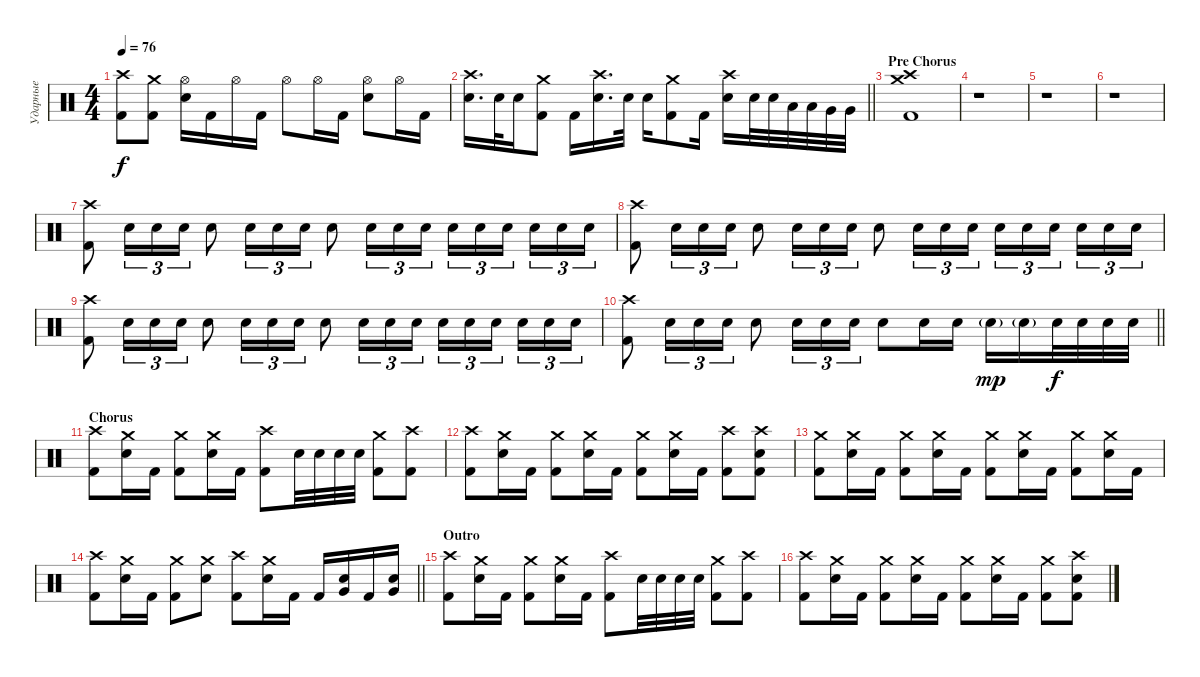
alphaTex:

\track ("Ударные" "Ударные") {instrument percussion}
\staff {score}
\articulation defaults
\ts (4 4)
\tempo 76
\clef neutral
\ks c
("Crash high (hit)" "Kick (hit) 2").8{dy f} ("Crash medium (hit)" "Kick (hit) 2").8 ("Hi-Hat (open)" "Electric Snare (hit)").16 "Kick (hit) 2".16 "Hi-Hat (open)".16 "Kick (hit) 2".16 "Hi-Hat (open)".8 "Hi-Hat (open)".16 "Kick (hit) 2".16 ("Hi-Hat (open)" "Electric Snare (hit)").8 "Hi-Hat (open)".16 "Kick (hit) 2".16 |
\barLineRight lightlight
("Crash high (hit)" "Electric Snare (hit)").16{d} "Electric Snare (hit)".32 "Electric Snare (hit)".16 ("Crash medium (hit)" "Kick (hit) 2").8 "Kick (hit) 2".16 ("Crash high (hit)" "Electric Snare (hit)").16{d} "Electric Snare (hit)".32 "Electric Snare (hit)".16 ("Crash medium (hit)" "Kick (hit) 2").8 "Kick (hit) 2".16 ("Crash high (hit)" "Electric Snare (hit)").16 "Electric Snare (hit)".32 "Electric Snare (hit)".32 "Low Tom (hit)".32 "Low Tom (hit)".32 "Very Low Tom (hit)".32 "Very Low Tom (hit)".32 |
\section ("" "Pre Chorus")
("Crash high (hit)" "Crash medium (hit)" "Kick (hit) 2").1 |
r.1 |
r.1 |
r.1 |
("Crash high (hit)" "Kick (hit) 2").8 "Electric Snare (hit)".16{tu (3 2)} "Electric Snare (hit)".16{tu (3 2)} "Electric Snare (hit)".16{tu (3 2)} "Electric Snare (hit)".8 "Electric Snare (hit)".16{tu (3 2)} "Electric Snare (hit)".16{tu (3 2)} "Electric Snare (hit)".16{tu (3 2)} "Electric Snare (hit)".8 "Electric Snare (hit)".16{tu (3 2)} "Electric Snare (hit)".16{tu (3 2)} "Electric Snare (hit)".16{tu (3 2)} "Electric Snare (hit)".16{tu (3 2)} "Electric Snare (hit)".16{tu (3 2)} "Electric Snare (hit)".16{tu (3 2) beam splitsecondary} "Electric Snare (hit)".16{tu (3 2)} "Electric Snare (hit)".16{tu (3 2)} "Electric Snare (hit)".16{tu (3 2)} |
("Crash high (hit)" "Kick (hit) 2").8 "Electric Snare (hit)".16{tu (3 2)} "Electric Snare (hit)".16{tu (3 2)} "Electric Snare (hit)".16{tu (3 2)} "Electric Snare (hit)".8 "Electric Snare (hit)".16{tu (3 2)} "Electric Snare (hit)".16{tu (3 2)} "Electric Snare (hit)".16{tu (3 2)} "Electric Snare (hit)".8 "Electric Snare (hit)".16{tu (3 2)} "Electric Snare (hit)".16{tu (3 2)} "Electric Snare (hit)".16{tu (3 2)} "Electric Snare (hit)".16{tu (3 2)} "Electric Snare (hit)".16{tu (3 2)} "Electric Snare (hit)".16{tu (3 2) beam splitsecondary} "Electric Snare (hit)".16{tu (3 2)} "Electric Snare (hit)".16{tu (3 2)} "Electric Snare (hit)".16{tu (3 2)} |
("Crash high (hit)" "Kick (hit) 2").8 "Electric Snare (hit)".16{tu (3 2)} "Electric Snare (hit)".16{tu (3 2)} "Electric Snare (hit)".16{tu (3 2)} "Electric Snare (hit)".8 "Electric Snare (hit)".16{tu (3 2)} "Electric Snare (hit)".16{tu (3 2)} "Electric Snare (hit)".16{tu (3 2)} "Electric Snare (hit)".8 "Electric Snare (hit)".16{tu (3 2)} "Electric Snare (hit)".16{tu (3 2)} "Electric Snare (hit)".16{tu (3 2)} "Electric Snare (hit)".16{tu (3 2)} "Electric Snare (hit)".16{tu (3 2)} "Electric Snare (hit)".16{tu (3 2) beam splitsecondary} "Electric Snare (hit)".16{tu (3 2)} "Electric Snare (hit)".16{tu (3 2)} "Electric Snare (hit)".16{tu (3 2)} |
\barLineRight lightlight
("Crash high (hit)" "Kick (hit) 2").8 "Electric Snare (hit)".16{tu (3 2)} "Electric Snare (hit)".16{tu (3 2)} "Electric Snare (hit)".16{tu (3 2)} "Electric Snare (hit)".8 "Electric Snare (hit)".16{tu (3 2)} "Electric Snare (hit)".16{tu (3 2)} "Electric Snare (hit)".16{tu (3 2)} "Electric Snare (hit)".8 "Electric Snare (hit)".16 "Electric Snare (hit)".16 "Electric Snare (hit)"{g}.16{dy mp} "Electric Snare (hit)"{g}.16 "Electric Snare (hit)".32{dy f} "Electric Snare (hit)".32 "Electric Snare (hit)".32 "Electric Snare (hit)".32 |
\section ("" "Сhorus")
("Crash high (hit)" "Kick (hit) 2").8 ("Crash medium (hit)" "Electric Snare (hit)").16 "Kick (hit) 2".16 ("Crash medium (hit)" "Kick (hit) 2").8 ("Crash medium (hit)" "Electric Snare (hit)").16 "Kick (hit) 2".16 ("Crash high (hit)" "Kick (hit) 2").8 "Electric Snare (hit)".32 "Electric Snare (hit)".32 "Electric Snare (hit)".32 "Electric Snare (hit)".32 ("Crash medium (hit)" "Kick (hit) 2").8 ("Crash high (hit)" "Kick (hit) 2").8 |
("Crash high (hit)" "Kick (hit) 2").8 ("Crash medium (hit)" "Electric Snare (hit)").16 "Kick (hit) 2".16 ("Crash medium (hit)" "Kick (hit) 2").8 ("Crash medium (hit)" "Electric Snare (hit)").16 "Kick (hit) 2".16 ("Crash medium (hit)" "Kick (hit) 2").8 ("Crash medium (hit)" "Electric Snare (hit)").16 "Kick (hit) 2".16 ("Crash high (hit)" "Kick (hit) 2").8 ("Crash high (hit)" "Electric Snare (hit)" "Kick (hit) 2").8 |
("Crash medium (hit)" "Kick (hit) 2").8 ("Crash medium (hit)" "Electric Snare (hit)").16 "Kick (hit) 2".16 ("Crash medium (hit)" "Kick (hit) 2").8 ("Crash medium (hit)" "Electric Snare (hit)").16 "Kick (hit) 2".16 ("Crash medium (hit)" "Kick (hit) 2").8 ("Crash medium (hit)" "Electric Snare (hit)").16 "Kick (hit) 2".16 ("Crash medium (hit)" "Kick (hit) 2").8 ("Crash medium (hit)" "Electric Snare (hit)").16 "Kick (hit) 2".16 |
\barLineRight lightlight
("Crash high (hit)" "Kick (hit) 2").8 ("Crash medium (hit)" "Electric Snare (hit)").16 "Kick (hit) 2".16 ("Crash medium (hit)" "Kick (hit) 2").8 ("Crash medium (hit)" "Electric Snare (hit)").8 ("Crash high (hit)" "Kick (hit) 2").8 ("Crash medium (hit)" "Electric Snare (hit)").16 "Kick (hit) 2".16 "Kick (hit) 2".16 ("Electric Snare (hit)" "Very Low Tom (hit)").16 "Kick (hit) 2".16 ("Electric Snare (hit)" "Very Low Tom (hit)").16 |
\section ("" "Outro")
("Crash high (hit)" "Kick (hit) 2").8 ("Crash medium (hit)" "Electric Snare (hit)").16 "Kick (hit) 2".16 ("Crash medium (hit)" "Kick (hit) 2").8 ("Crash medium (hit)" "Electric Snare (hit)").16 "Kick (hit) 2".16 ("Crash high (hit)" "Kick (hit) 2").8 "Electric Snare (hit)".32 "Electric Snare (hit)".32 "Electric Snare (hit)".32 "Electric Snare (hit)".32 ("Crash medium (hit)" "Kick (hit) 2").8 ("Crash high (hit)" "Kick (hit) 2").8 |
("Crash high (hit)" "Kick (hit) 2").8 ("Crash medium (hit)" "Electric Snare (hit)").16 "Kick (hit) 2".16 ("Crash medium (hit)" "Kick (hit) 2").8 ("Crash medium (hit)" "Electric Snare (hit)").16 "Kick (hit) 2".16 ("Crash medium (hit)" "Kick (hit) 2").8 ("Crash medium (hit)" "Electric Snare (hit)").16 "Kick (hit) 2".16 ("Crash medium (hit)" "Kick (hit) 2").8 ("Crash high (hit)" "Electric Snare (hit)" "Kick (hit) 2").8
